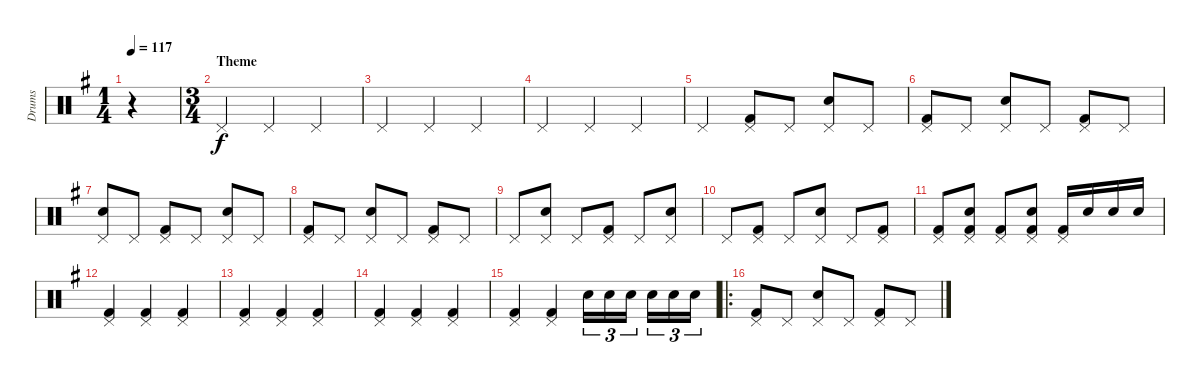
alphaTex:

\track ("Drums" "Drums") {instrument percussion}
\staff {score}
\articulation defaults
\ts (1 4)
\tempo 117
\clef neutral
\ks g
r.4{dy f} |
\ts (3 4)
\section ("" "Theme")
"Pedal Hi-Hat (hit)".4 "Pedal Hi-Hat (hit)".4 "Pedal Hi-Hat (hit)".4 |
"Pedal Hi-Hat (hit)".4 "Pedal Hi-Hat (hit)".4 "Pedal Hi-Hat (hit)".4 |
"Pedal Hi-Hat (hit)".4 "Pedal Hi-Hat (hit)".4 "Pedal Hi-Hat (hit)".4 |
"Pedal Hi-Hat (hit)".4 ("Pedal Hi-Hat (hit)" "Kick (hit) 2").8 "Pedal Hi-Hat (hit)".8 ("Pedal Hi-Hat (hit)" "Snare (hit) 2").8 "Pedal Hi-Hat (hit)".8 |
("Pedal Hi-Hat (hit)" "Kick (hit) 2").8 "Pedal Hi-Hat (hit)".8 ("Pedal Hi-Hat (hit)" "Snare (hit) 2").8 "Pedal Hi-Hat (hit)".8 ("Pedal Hi-Hat (hit)" "Kick (hit) 2").8 "Pedal Hi-Hat (hit)".8 |
("Pedal Hi-Hat (hit)" "Snare (hit) 2").8 "Pedal Hi-Hat (hit)".8 ("Pedal Hi-Hat (hit)" "Kick (hit) 2").8 "Pedal Hi-Hat (hit)".8 ("Pedal Hi-Hat (hit)" "Snare (hit) 2").8 "Pedal Hi-Hat (hit)".8 |
("Pedal Hi-Hat (hit)" "Kick (hit) 2").8 "Pedal Hi-Hat (hit)".8 ("Pedal Hi-Hat (hit)" "Snare (hit) 2").8 "Pedal Hi-Hat (hit)".8 ("Pedal Hi-Hat (hit)" "Kick (hit) 2").8 "Pedal Hi-Hat (hit)".8 |
"Pedal Hi-Hat (hit)".8 ("Pedal Hi-Hat (hit)" "Snare (hit) 2").8 "Pedal Hi-Hat (hit)".8 ("Pedal Hi-Hat (hit)" "Kick (hit) 2").8 "Pedal Hi-Hat (hit)".8 ("Pedal Hi-Hat (hit)" "Snare (hit) 2").8 |
"Pedal Hi-Hat (hit)".8 ("Pedal Hi-Hat (hit)" "Kick (hit) 2").8 "Pedal Hi-Hat (hit)".8 ("Pedal Hi-Hat (hit)" "Snare (hit) 2").8 "Pedal Hi-Hat (hit)".8 ("Pedal Hi-Hat (hit)" "Kick (hit) 2").8 |
("Pedal Hi-Hat (hit)" "Kick (hit) 2").8 ("Pedal Hi-Hat (hit)" "Snare (hit) 2" "Kick (hit) 2").8 ("Pedal Hi-Hat (hit)" "Kick (hit) 2").8 ("Pedal Hi-Hat (hit)" "Snare (hit) 2" "Kick (hit) 2").8 ("Pedal Hi-Hat (hit)" "Kick (hit) 2").16 "Snare (hit) 2".16 "Snare (hit) 2".16 "Snare (hit) 2".16 |
("Pedal Hi-Hat (hit)" "Kick (hit) 2").4{volume 16} ("Pedal Hi-Hat (hit)" "Kick (hit) 2").4 ("Pedal Hi-Hat (hit)" "Kick (hit) 2").4 |
("Pedal Hi-Hat (hit)" "Kick (hit) 2").4 ("Pedal Hi-Hat (hit)" "Kick (hit) 2").4 ("Pedal Hi-Hat (hit)" "Kick (hit) 2").4 |
("Pedal Hi-Hat (hit)" "Kick (hit) 2").4 ("Pedal Hi-Hat (hit)" "Kick (hit) 2").4 ("Pedal Hi-Hat (hit)" "Kick (hit) 2").4 |
("Pedal Hi-Hat (hit)" "Kick (hit) 2").4 ("Pedal Hi-Hat (hit)" "Kick (hit) 2").4 "Snare (hit) 2".16{tu (3 2)} "Snare (hit) 2".16{tu (3 2)} "Snare (hit) 2".16{tu (3 2)} "Snare (hit) 2".16{tu (3 2)} "Snare (hit) 2".16{tu (3 2)} "Snare (hit) 2".16{tu (3 2)} |
\ro
("Pedal Hi-Hat (hit)" "Kick (hit) 2").8{volume 13} "Pedal Hi-Hat (hit)".8 ("Pedal Hi-Hat (hit)" "Snare (hit) 2").8 "Pedal Hi-Hat (hit)".8 ("Pedal Hi-Hat (hit)" "Kick (hit) 2").8 "Pedal Hi-Hat (hit)".8
